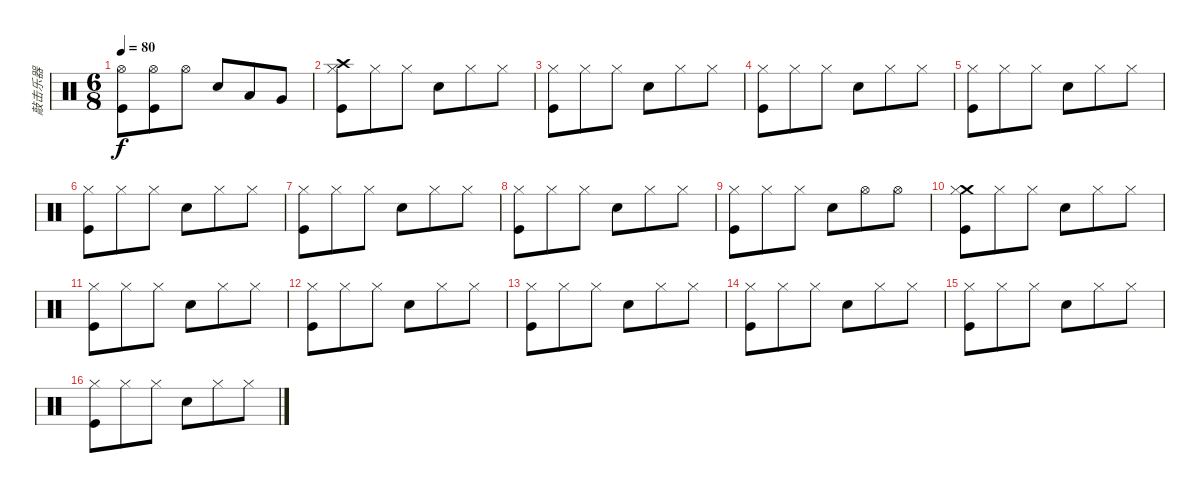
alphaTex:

\track ("敲击乐器" "敲击乐器") {instrument percussion}
\staff {score}
\articulation defaults
\ts (6 8)
\tempo 80
\clef neutral
\ks c
("Hi-Hat (open)" "Kick (hit)").8{dy f} ("Hi-Hat (open)" "Kick (hit)").8 "Hi-Hat (open)".8 "Snare (hit) 2".8 "Low Tom (hit)".8 "Very Low Tom (hit)".8 |
("Crash high (hit)" "Hi-Hat (closed)" "Kick (hit)").8 "Hi-Hat (closed)".8 "Hi-Hat (closed)".8 "Snare (hit) 2".8 "Hi-Hat (closed)".8 "Hi-Hat (closed)".8 |
("Hi-Hat (closed)" "Kick (hit)").8 "Hi-Hat (closed)".8 "Hi-Hat (closed)".8 "Snare (hit) 2".8 "Hi-Hat (closed)".8 "Hi-Hat (closed)".8 |
("Hi-Hat (closed)" "Kick (hit)").8 "Hi-Hat (closed)".8 "Hi-Hat (closed)".8 "Snare (hit) 2".8 "Hi-Hat (closed)".8 "Hi-Hat (closed)".8 |
("Hi-Hat (closed)" "Kick (hit)").8 "Hi-Hat (closed)".8 "Hi-Hat (closed)".8 "Snare (hit) 2".8 "Hi-Hat (closed)".8 "Hi-Hat (closed)".8 |
("Hi-Hat (closed)" "Kick (hit)").8 "Hi-Hat (closed)".8 "Hi-Hat (closed)".8 "Snare (hit) 2".8 "Hi-Hat (closed)".8 "Hi-Hat (closed)".8 |
("Hi-Hat (closed)" "Kick (hit)").8 "Hi-Hat (closed)".8 "Hi-Hat (closed)".8 "Snare (hit) 2".8 "Hi-Hat (closed)".8 "Hi-Hat (closed)".8 |
("Hi-Hat (closed)" "Kick (hit)").8 "Hi-Hat (closed)".8 "Hi-Hat (closed)".8 "Snare (hit) 2".8 "Hi-Hat (closed)".8 "Hi-Hat (closed)".8 |
("Hi-Hat (closed)" "Kick (hit)").8 "Hi-Hat (closed)".8 "Hi-Hat (closed)".8 "Snare (hit) 2".8 "Hi-Hat (open)".8 "Hi-Hat (open)".8 |
("Crash medium (hit)" "Hi-Hat (closed)" "Kick (hit)").8 "Hi-Hat (closed)".8 "Hi-Hat (closed)".8 "Snare (hit) 2".8 "Hi-Hat (closed)".8 "Hi-Hat (closed)".8 |
("Hi-Hat (closed)" "Kick (hit)").8 "Hi-Hat (closed)".8 "Hi-Hat (closed)".8 "Snare (hit) 2".8 "Hi-Hat (closed)".8 "Hi-Hat (closed)".8 |
("Hi-Hat (closed)" "Kick (hit)").8 "Hi-Hat (closed)".8 "Hi-Hat (closed)".8 "Snare (hit) 2".8 "Hi-Hat (closed)".8 "Hi-Hat (closed)".8 |
("Hi-Hat (closed)" "Kick (hit)").8 "Hi-Hat (closed)".8 "Hi-Hat (closed)".8 "Snare (hit) 2".8 "Hi-Hat (closed)".8 "Hi-Hat (closed)".8 |
("Hi-Hat (closed)" "Kick (hit)").8 "Hi-Hat (closed)".8 "Hi-Hat (closed)".8 "Snare (hit) 2".8 "Hi-Hat (closed)".8 "Hi-Hat (closed)".8 |
("Hi-Hat (closed)" "Kick (hit)").8 "Hi-Hat (closed)".8 "Hi-Hat (closed)".8 "Snare (hit) 2".8 "Hi-Hat (closed)".8 "Hi-Hat (closed)".8 |
("Hi-Hat (closed)" "Kick (hit)").8 "Hi-Hat (closed)".8 "Hi-Hat (closed)".8 "Snare (hit) 2".8 "Hi-Hat (closed)".8 "Hi-Hat (closed)".8
